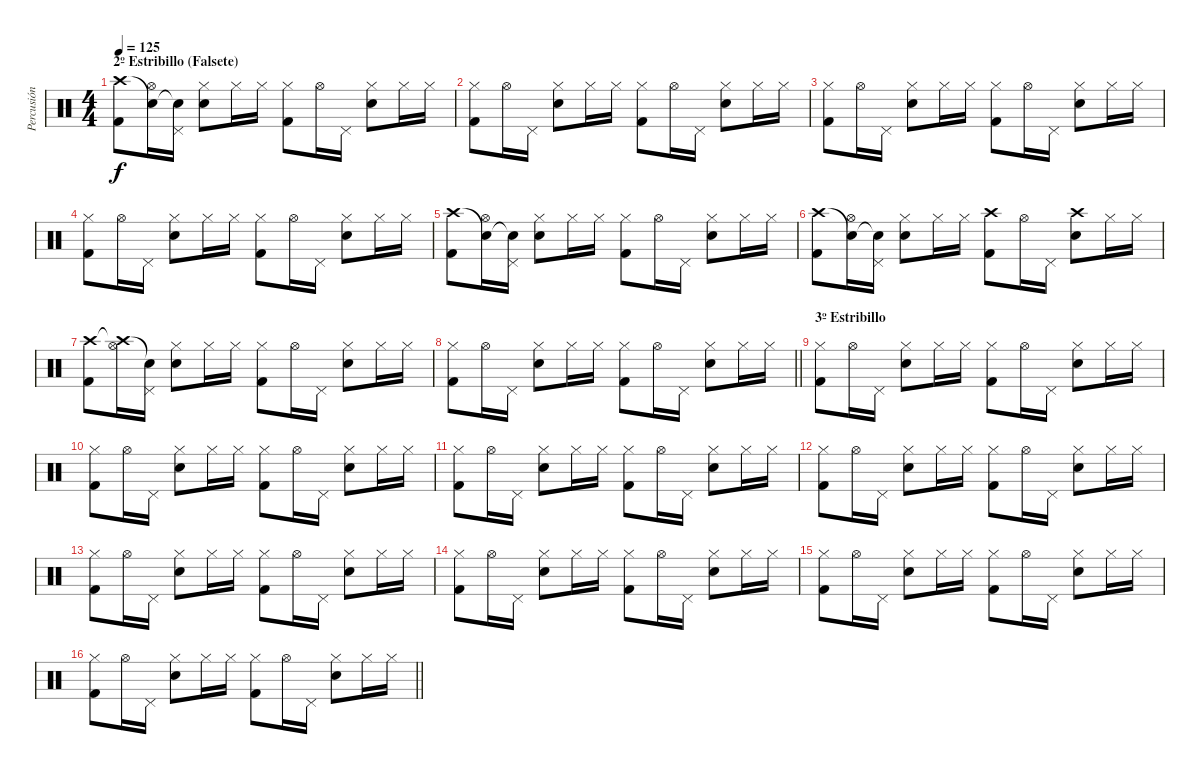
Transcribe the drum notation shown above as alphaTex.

\track ("Percusión" "Percusión") {instrument percussion}
\staff {score}
\articulation defaults
\ts (4 4)
\section ("" "2º Estribillo (Falsete)")
\tempo 125
\clef neutral
\ks c
("Crash high (hit)" "Kick (hit) 2").8{dy f} ("Snare (hit)"{t} "Hi-Hat (open)").16 ("Snare (hit)"{t} "Pedal Hi-Hat (hit)").16 ("Hi-Hat (closed)" "Snare (hit) 2").8 "Hi-Hat (closed)".16 "Hi-Hat (closed)".16 ("Hi-Hat (closed)" "Kick (hit) 2").8 "Hi-Hat (open)".16 "Pedal Hi-Hat (hit)".16 ("Hi-Hat (closed)" "Snare (hit) 2").8 "Hi-Hat (closed)".16 "Hi-Hat (closed)".16 |
("Hi-Hat (closed)" "Kick (hit) 2").8 "Hi-Hat (open)".16 "Pedal Hi-Hat (hit)".16 ("Hi-Hat (closed)" "Snare (hit) 2").8 "Hi-Hat (closed)".16 "Hi-Hat (closed)".16 ("Hi-Hat (closed)" "Kick (hit) 2").8 "Hi-Hat (open)".16 "Pedal Hi-Hat (hit)".16 ("Hi-Hat (closed)" "Snare (hit) 2").8 "Hi-Hat (closed)".16 "Hi-Hat (closed)".16 |
("Hi-Hat (closed)" "Kick (hit) 2").8 "Hi-Hat (open)".16 "Pedal Hi-Hat (hit)".16 ("Hi-Hat (closed)" "Snare (hit) 2").8 "Hi-Hat (closed)".16 "Hi-Hat (closed)".16 ("Hi-Hat (closed)" "Kick (hit) 2").8 "Hi-Hat (open)".16 "Pedal Hi-Hat (hit)".16 ("Hi-Hat (closed)" "Snare (hit) 2").8 "Hi-Hat (closed)".16 "Hi-Hat (closed)".16 |
("Hi-Hat (closed)" "Kick (hit) 2").8 "Hi-Hat (open)".16 "Pedal Hi-Hat (hit)".16 ("Hi-Hat (closed)" "Snare (hit) 2").8 "Hi-Hat (closed)".16 "Hi-Hat (closed)".16 ("Hi-Hat (closed)" "Kick (hit) 2").8 "Hi-Hat (open)".16 "Pedal Hi-Hat (hit)".16 ("Hi-Hat (closed)" "Snare (hit) 2").8 "Hi-Hat (closed)".16 "Hi-Hat (closed)".16 |
("Crash high (hit)" "Kick (hit) 2").8 ("Snare (hit)"{t} "Hi-Hat (open)").16 ("Snare (hit)"{t} "Pedal Hi-Hat (hit)").16 ("Hi-Hat (closed)" "Snare (hit) 2").8 "Hi-Hat (closed)".16 "Hi-Hat (closed)".16 ("Hi-Hat (closed)" "Kick (hit) 2").8 "Hi-Hat (open)".16 "Pedal Hi-Hat (hit)".16 ("Hi-Hat (closed)" "Snare (hit) 2").8 "Hi-Hat (closed)".16 "Hi-Hat (closed)".16 |
("Crash high (hit)" "Kick (hit) 2").8 ("Snare (hit)"{t} "Hi-Hat (open)").16 ("Snare (hit)"{t} "Pedal Hi-Hat (hit)").16 ("Hi-Hat (closed)" "Snare (hit) 2").8 "Hi-Hat (closed)".16 "Hi-Hat (closed)".16 ("Crash high (hit)" "Kick (hit) 2").8 "Hi-Hat (open)".16 "Pedal Hi-Hat (hit)".16 ("Crash high (hit)" "Snare (hit) 2").8 "Hi-Hat (closed)".16 "Hi-Hat (closed)".16 |
("Crash high (hit)" "Kick (hit) 2").8 ("Crash high (hit)"{t} "Hi-Hat (open)").16 ("Snare (hit)"{t} "Pedal Hi-Hat (hit)").16 ("Hi-Hat (closed)" "Snare (hit) 2").8 "Hi-Hat (closed)".16 "Hi-Hat (closed)".16 ("Hi-Hat (closed)" "Kick (hit) 2").8 "Hi-Hat (open)".16 "Pedal Hi-Hat (hit)".16 ("Hi-Hat (closed)" "Snare (hit) 2").8 "Hi-Hat (closed)".16 "Hi-Hat (closed)".16 |
\barLineRight lightlight
("Hi-Hat (closed)" "Kick (hit) 2").8 "Hi-Hat (open)".16 "Pedal Hi-Hat (hit)".16 ("Hi-Hat (closed)" "Snare (hit) 2").8 "Hi-Hat (closed)".16 "Hi-Hat (closed)".16 ("Hi-Hat (closed)" "Kick (hit) 2").8 "Hi-Hat (open)".16 "Pedal Hi-Hat (hit)".16 ("Hi-Hat (closed)" "Snare (hit) 2").8 "Hi-Hat (closed)".16 "Hi-Hat (closed)".16 |
\section ("" "3º Estribillo")
("Hi-Hat (closed)" "Kick (hit) 2").8 "Hi-Hat (open)".16 "Pedal Hi-Hat (hit)".16 ("Hi-Hat (closed)" "Snare (hit) 2").8 "Hi-Hat (closed)".16 "Hi-Hat (closed)".16 ("Hi-Hat (closed)" "Kick (hit) 2").8 "Hi-Hat (open)".16 "Pedal Hi-Hat (hit)".16 ("Hi-Hat (closed)" "Snare (hit) 2").8 "Hi-Hat (closed)".16 "Hi-Hat (closed)".16 |
("Hi-Hat (closed)" "Kick (hit) 2").8 "Hi-Hat (open)".16 "Pedal Hi-Hat (hit)".16 ("Hi-Hat (closed)" "Snare (hit) 2").8 "Hi-Hat (closed)".16 "Hi-Hat (closed)".16 ("Hi-Hat (closed)" "Kick (hit) 2").8 "Hi-Hat (open)".16 "Pedal Hi-Hat (hit)".16 ("Hi-Hat (closed)" "Snare (hit) 2").8 "Hi-Hat (closed)".16 "Hi-Hat (closed)".16 |
("Hi-Hat (closed)" "Kick (hit) 2").8 "Hi-Hat (open)".16 "Pedal Hi-Hat (hit)".16 ("Hi-Hat (closed)" "Snare (hit) 2").8 "Hi-Hat (closed)".16 "Hi-Hat (closed)".16 ("Hi-Hat (closed)" "Kick (hit) 2").8 "Hi-Hat (open)".16 "Pedal Hi-Hat (hit)".16 ("Hi-Hat (closed)" "Snare (hit) 2").8 "Hi-Hat (closed)".16 "Hi-Hat (closed)".16 |
("Hi-Hat (closed)" "Kick (hit) 2").8 "Hi-Hat (open)".16 "Pedal Hi-Hat (hit)".16 ("Hi-Hat (closed)" "Snare (hit) 2").8 "Hi-Hat (closed)".16 "Hi-Hat (closed)".16 ("Hi-Hat (closed)" "Kick (hit) 2").8 "Hi-Hat (open)".16 "Pedal Hi-Hat (hit)".16 ("Hi-Hat (closed)" "Snare (hit) 2").8 "Hi-Hat (closed)".16 "Hi-Hat (closed)".16 |
("Hi-Hat (closed)" "Kick (hit) 2").8 "Hi-Hat (open)".16 "Pedal Hi-Hat (hit)".16 ("Hi-Hat (closed)" "Snare (hit) 2").8 "Hi-Hat (closed)".16 "Hi-Hat (closed)".16 ("Hi-Hat (closed)" "Kick (hit) 2").8 "Hi-Hat (open)".16 "Pedal Hi-Hat (hit)".16 ("Hi-Hat (closed)" "Snare (hit) 2").8 "Hi-Hat (closed)".16 "Hi-Hat (closed)".16 |
("Hi-Hat (closed)" "Kick (hit) 2").8 "Hi-Hat (open)".16 "Pedal Hi-Hat (hit)".16 ("Hi-Hat (closed)" "Snare (hit) 2").8 "Hi-Hat (closed)".16 "Hi-Hat (closed)".16 ("Hi-Hat (closed)" "Kick (hit) 2").8 "Hi-Hat (open)".16 "Pedal Hi-Hat (hit)".16 ("Hi-Hat (closed)" "Snare (hit) 2").8 "Hi-Hat (closed)".16 "Hi-Hat (closed)".16 |
("Hi-Hat (closed)" "Kick (hit) 2").8 "Hi-Hat (open)".16 "Pedal Hi-Hat (hit)".16 ("Hi-Hat (closed)" "Snare (hit) 2").8 "Hi-Hat (closed)".16 "Hi-Hat (closed)".16 ("Hi-Hat (closed)" "Kick (hit) 2").8 "Hi-Hat (open)".16 "Pedal Hi-Hat (hit)".16 ("Hi-Hat (closed)" "Snare (hit) 2").8 "Hi-Hat (closed)".16 "Hi-Hat (closed)".16 |
\barLineRight lightlight
("Hi-Hat (closed)" "Kick (hit) 2").8 "Hi-Hat (open)".16 "Pedal Hi-Hat (hit)".16 ("Hi-Hat (closed)" "Snare (hit) 2").8 "Hi-Hat (closed)".16 "Hi-Hat (closed)".16 ("Hi-Hat (closed)" "Kick (hit) 2").8 "Hi-Hat (open)".16 "Pedal Hi-Hat (hit)".16 ("Hi-Hat (closed)" "Snare (hit) 2").8 "Hi-Hat (closed)".16 "Hi-Hat (closed)".16
